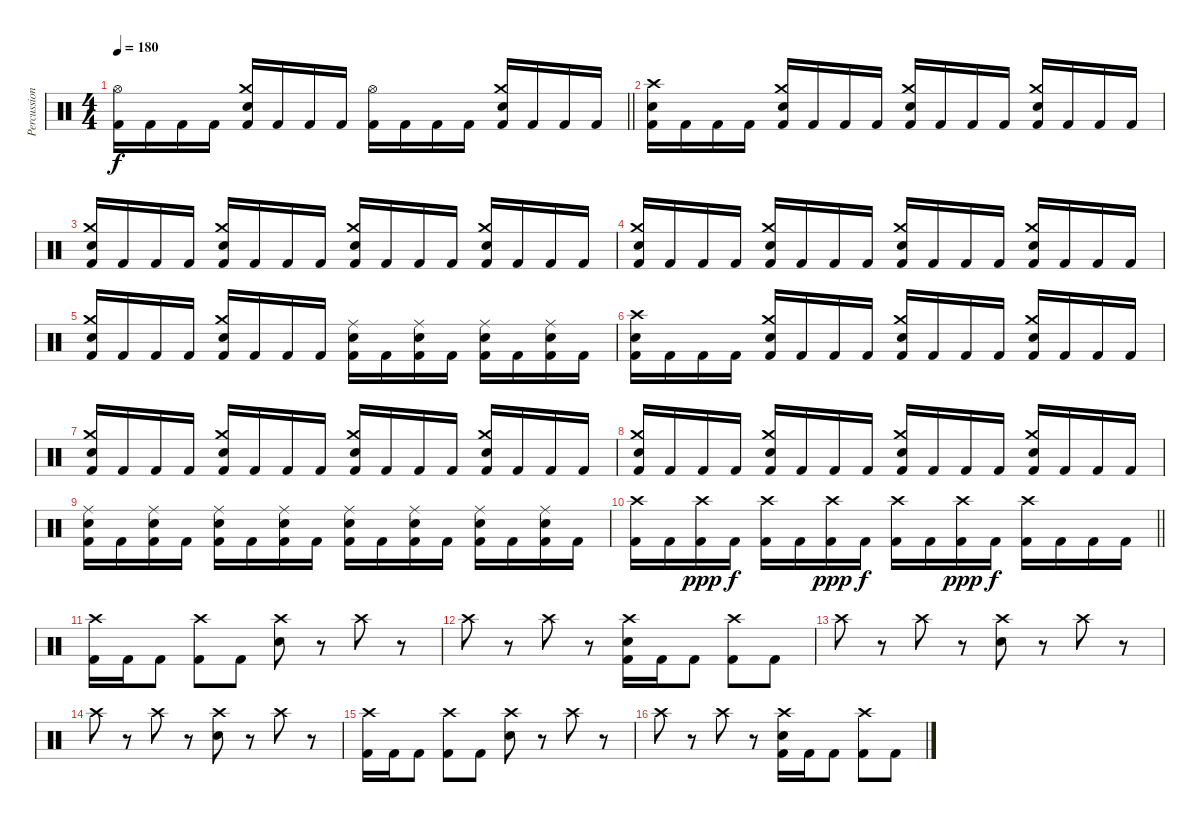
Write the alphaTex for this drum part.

\track ("Percussion" "Percussion") {instrument percussion}
\staff {score}
\articulation defaults
\ts (4 4)
\tempo 180
\clef neutral
\barLineRight lightlight
\ks c
("Hi-Hat (open)" "Kick (hit) 2").16{dy f} "Kick (hit) 2".16 "Kick (hit) 2".16 "Kick (hit) 2".16 ("Crash medium (hit)" "Snare (hit) 2" "Kick (hit) 2").16 "Kick (hit) 2".16 "Kick (hit) 2".16 "Kick (hit) 2".16 ("Hi-Hat (open)" "Kick (hit) 2").16 "Kick (hit) 2".16 "Kick (hit) 2".16 "Kick (hit) 2".16 ("Crash medium (hit)" "Snare (hit) 2" "Kick (hit) 2").16 "Kick (hit) 2".16 "Kick (hit) 2".16 "Kick (hit) 2".16 |
("Crash high (hit)" "Snare (hit) 2" "Kick (hit) 2").16 "Kick (hit) 2".16 "Kick (hit) 2".16 "Kick (hit) 2".16 ("Crash medium (hit)" "Snare (hit) 2" "Kick (hit) 2").16 "Kick (hit) 2".16 "Kick (hit) 2".16 "Kick (hit) 2".16 ("Crash medium (hit)" "Snare (hit) 2" "Kick (hit) 2").16 "Kick (hit) 2".16 "Kick (hit) 2".16 "Kick (hit) 2".16 ("Crash medium (hit)" "Snare (hit) 2" "Kick (hit) 2").16 "Kick (hit) 2".16 "Kick (hit) 2".16 "Kick (hit) 2".16 |
("Crash medium (hit)" "Snare (hit) 2" "Kick (hit) 2").16 "Kick (hit) 2".16 "Kick (hit) 2".16 "Kick (hit) 2".16 ("Crash medium (hit)" "Snare (hit) 2" "Kick (hit) 2").16 "Kick (hit) 2".16 "Kick (hit) 2".16 "Kick (hit) 2".16 ("Crash medium (hit)" "Snare (hit) 2" "Kick (hit) 2").16 "Kick (hit) 2".16 "Kick (hit) 2".16 "Kick (hit) 2".16 ("Crash medium (hit)" "Snare (hit) 2" "Kick (hit) 2").16 "Kick (hit) 2".16 "Kick (hit) 2".16 "Kick (hit) 2".16 |
("Crash medium (hit)" "Snare (hit) 2" "Kick (hit) 2").16 "Kick (hit) 2".16 "Kick (hit) 2".16 "Kick (hit) 2".16 ("Crash medium (hit)" "Snare (hit) 2" "Kick (hit) 2").16 "Kick (hit) 2".16 "Kick (hit) 2".16 "Kick (hit) 2".16 ("Crash medium (hit)" "Snare (hit) 2" "Kick (hit) 2").16 "Kick (hit) 2".16 "Kick (hit) 2".16 "Kick (hit) 2".16 ("Crash medium (hit)" "Snare (hit) 2" "Kick (hit) 2").16 "Kick (hit) 2".16 "Kick (hit) 2".16 "Kick (hit) 2".16 |
("Crash medium (hit)" "Snare (hit) 2" "Kick (hit) 2").16 "Kick (hit) 2".16 "Kick (hit) 2".16 "Kick (hit) 2".16 ("Crash medium (hit)" "Snare (hit) 2" "Kick (hit) 2").16 "Kick (hit) 2".16 "Kick (hit) 2".16 "Kick (hit) 2".16 ("Ride (middle)" "Snare (hit) 2" "Kick (hit) 2").16 "Kick (hit) 2".16 ("Ride (middle)" "Snare (hit) 2" "Kick (hit) 2").16 "Kick (hit) 2".16 ("Ride (middle)" "Snare (hit) 2" "Kick (hit) 2").16 "Kick (hit) 2".16 ("Ride (middle)" "Snare (hit) 2" "Kick (hit) 2").16 "Kick (hit) 2".16 |
("Crash high (hit)" "Snare (hit) 2" "Kick (hit) 2").16 "Kick (hit) 2".16 "Kick (hit) 2".16 "Kick (hit) 2".16 ("Crash medium (hit)" "Snare (hit) 2" "Kick (hit) 2").16 "Kick (hit) 2".16 "Kick (hit) 2".16 "Kick (hit) 2".16 ("Crash medium (hit)" "Snare (hit) 2" "Kick (hit) 2").16 "Kick (hit) 2".16 "Kick (hit) 2".16 "Kick (hit) 2".16 ("Crash medium (hit)" "Snare (hit) 2" "Kick (hit) 2").16 "Kick (hit) 2".16 "Kick (hit) 2".16 "Kick (hit) 2".16 |
("Crash medium (hit)" "Snare (hit) 2" "Kick (hit) 2").16 "Kick (hit) 2".16 "Kick (hit) 2".16 "Kick (hit) 2".16 ("Crash medium (hit)" "Snare (hit) 2" "Kick (hit) 2").16 "Kick (hit) 2".16 "Kick (hit) 2".16 "Kick (hit) 2".16 ("Crash medium (hit)" "Snare (hit) 2" "Kick (hit) 2").16 "Kick (hit) 2".16 "Kick (hit) 2".16 "Kick (hit) 2".16 ("Crash medium (hit)" "Snare (hit) 2" "Kick (hit) 2").16 "Kick (hit) 2".16 "Kick (hit) 2".16 "Kick (hit) 2".16 |
("Crash medium (hit)" "Snare (hit) 2" "Kick (hit) 2").16 "Kick (hit) 2".16 "Kick (hit) 2".16 "Kick (hit) 2".16 ("Crash medium (hit)" "Snare (hit) 2" "Kick (hit) 2").16 "Kick (hit) 2".16 "Kick (hit) 2".16 "Kick (hit) 2".16 ("Crash medium (hit)" "Snare (hit) 2" "Kick (hit) 2").16 "Kick (hit) 2".16 "Kick (hit) 2".16 "Kick (hit) 2".16 ("Crash medium (hit)" "Snare (hit) 2" "Kick (hit) 2").16 "Kick (hit) 2".16 "Kick (hit) 2".16 "Kick (hit) 2".16 |
("Ride (middle)" "Snare (hit) 2" "Kick (hit) 2").16 "Kick (hit) 2".16 ("Ride (middle)" "Snare (hit) 2" "Kick (hit) 2").16 "Kick (hit) 2".16 ("Ride (middle)" "Snare (hit) 2" "Kick (hit) 2").16 "Kick (hit) 2".16 ("Ride (middle)" "Snare (hit) 2" "Kick (hit) 2").16 "Kick (hit) 2".16 ("Ride (middle)" "Snare (hit) 2" "Kick (hit) 2").16 "Kick (hit) 2".16 ("Ride (middle)" "Snare (hit) 2" "Kick (hit) 2").16 "Kick (hit) 2".16 ("Ride (middle)" "Snare (hit) 2" "Kick (hit) 2").16 "Kick (hit) 2".16 ("Ride (middle)" "Snare (hit) 2" "Kick (hit) 2").16 "Kick (hit) 2".16 |
\barLineRight lightlight
("Crash high (hit)" "Kick (hit) 2").16 "Kick (hit) 2".16 ("Crash high (hit)" "Kick (hit) 2").16{dy ppp} "Kick (hit) 2".16{dy f} ("Crash high (hit)" "Kick (hit) 2").16 "Kick (hit) 2".16 ("Crash high (hit)" "Kick (hit) 2").16{dy ppp} "Kick (hit) 2".16{dy f} ("Crash high (hit)" "Kick (hit) 2").16 "Kick (hit) 2".16 ("Crash high (hit)" "Kick (hit) 2").16{dy ppp} "Kick (hit) 2".16{dy f} ("Crash high (hit)" "Kick (hit) 2").16 "Kick (hit) 2".16 "Kick (hit) 2".16 "Kick (hit) 2".16 |
("Crash high (hit)" "Kick (hit) 2").16 "Kick (hit) 2".16 "Kick (hit) 2".8 ("Crash high (hit)" "Kick (hit) 2").8 "Kick (hit) 2".8 ("Crash high (hit)" "Snare (hit) 2").8 r.8 "Crash high (hit)".8 r.8 |
"Crash high (hit)".8 r.8 "Crash high (hit)".8 r.8 ("Crash high (hit)" "Snare (hit) 2" "Kick (hit) 2").16 "Kick (hit) 2".16 "Kick (hit) 2".8 ("Crash high (hit)" "Kick (hit) 2").8 "Kick (hit) 2".8 |
"Crash high (hit)".8 r.8 "Crash high (hit)".8 r.8 ("Crash high (hit)" "Snare (hit) 2").8 r.8 "Crash high (hit)".8 r.8 |
"Crash high (hit)".8 r.8 "Crash high (hit)".8 r.8 ("Crash high (hit)" "Snare (hit) 2").8 r.8 "Crash high (hit)".8 r.8 |
("Crash high (hit)" "Kick (hit) 2").16 "Kick (hit) 2".16 "Kick (hit) 2".8 ("Crash high (hit)" "Kick (hit) 2").8 "Kick (hit) 2".8 ("Crash high (hit)" "Snare (hit) 2").8 r.8 "Crash high (hit)".8 r.8 |
"Crash high (hit)".8 r.8 "Crash high (hit)".8 r.8 ("Crash high (hit)" "Snare (hit) 2" "Kick (hit) 2").16 "Kick (hit) 2".16 "Kick (hit) 2".8 ("Crash high (hit)" "Kick (hit) 2").8 "Kick (hit) 2".8
